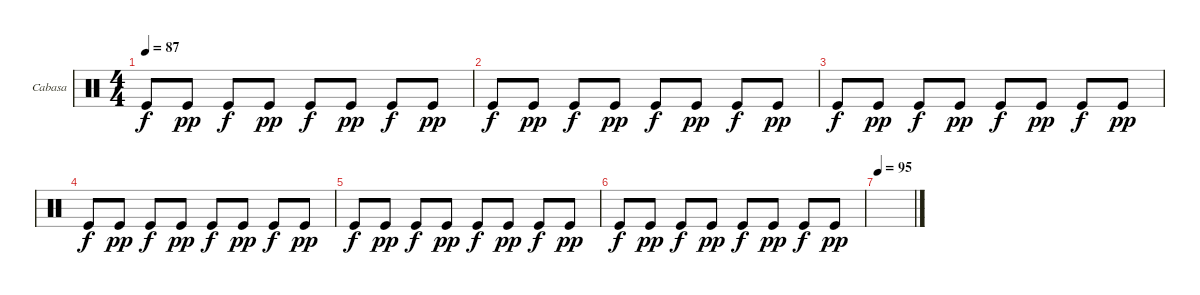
\defaultSystemsLayout 4
\bracketExtendMode groupsimilarinstruments
\firstSystemTrackNameOrientation horizontal
\otherSystemsTrackNameOrientation horizontal
\track ("Cabasa" "Cabasa") {instrument percussion}
\staff {score}
\articulation defaults
\ts (4 4)
\tempo 87
\clef neutral
\ks c "Kick (hit)".8{dy f} "Kick (hit)".8{dy pp} "Kick (hit)".8{dy f} "Kick (hit)".8{dy pp} "Kick (hit)".8{dy f} "Kick (hit)".8{dy pp} "Kick (hit)".8{dy f} "Kick (hit)".8{dy pp}
|
"Kick (hit)".8{dy f} "Kick (hit)".8{dy pp} "Kick (hit)".8{dy f} "Kick (hit)".8{dy pp} "Kick (hit)".8{dy f} "Kick (hit)".8{dy pp} "Kick (hit)".8{dy f} "Kick (hit)".8{dy pp} |
"Kick (hit)".8{dy f} "Kick (hit)".8{dy pp} "Kick (hit)".8{dy f} "Kick (hit)".8{dy pp} "Kick (hit)".8{dy f} "Kick (hit)".8{dy pp} "Kick (hit)".8{dy f} "Kick (hit)".8{dy pp} |
"Kick (hit)".8{dy f} "Kick (hit)".8{dy pp} "Kick (hit)".8{dy f} "Kick (hit)".8{dy pp} "Kick (hit)".8{dy f} "Kick (hit)".8{dy pp} "Kick (hit)".8{dy f} "Kick (hit)".8{dy pp} |
"Kick (hit)".8{dy f} "Kick (hit)".8{dy pp} "Kick (hit)".8{dy f} "Kick (hit)".8{dy pp} "Kick (hit)".8{dy f} "Kick (hit)".8{dy pp} "Kick (hit)".8{dy f} "Kick (hit)".8{dy pp} |
"Kick (hit)".8{dy f} "Kick (hit)".8{dy pp} "Kick (hit)".8{dy f} "Kick (hit)".8{dy pp} "Kick (hit)".8{dy f} "Kick (hit)".8{dy pp} "Kick (hit)".8{dy f} "Kick (hit)".8{dy pp} |
\tempo 95
